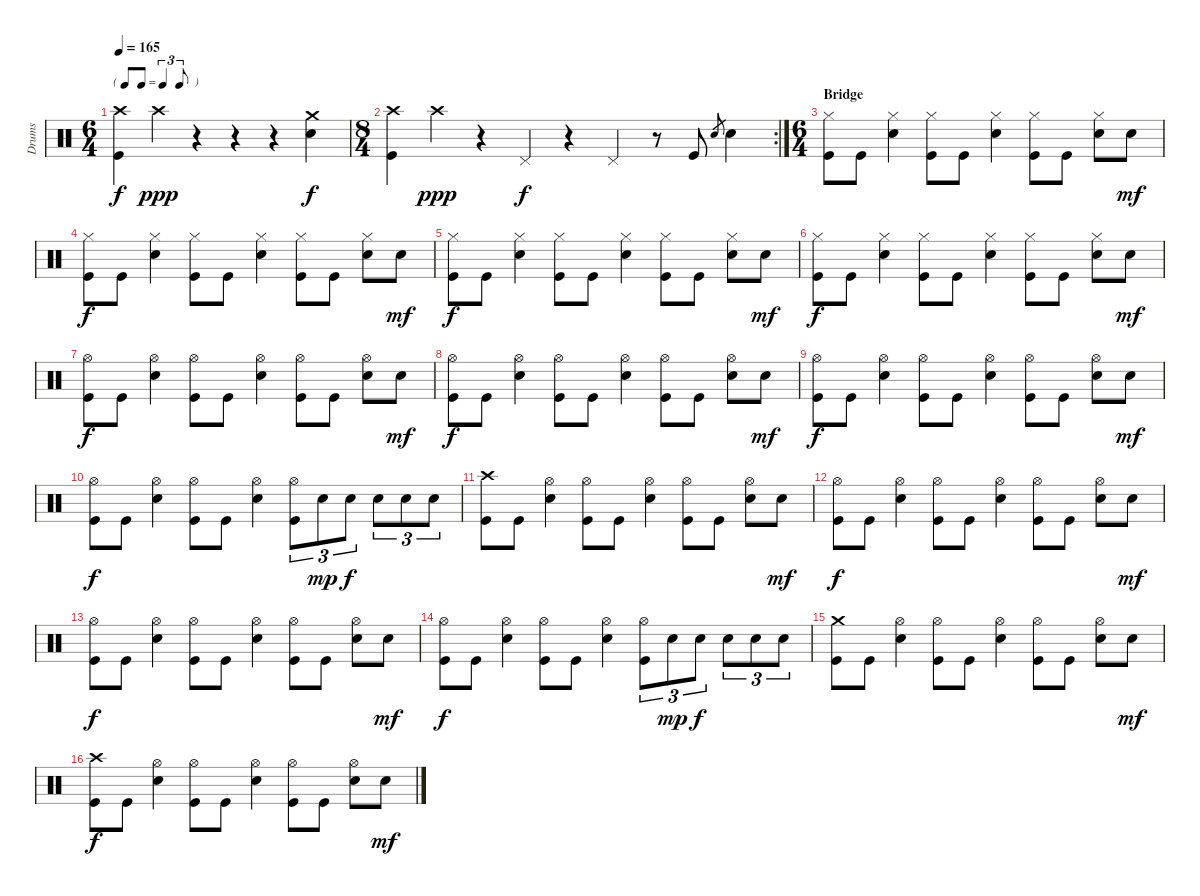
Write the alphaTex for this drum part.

\track ("Drums" "Drums") {instrument percussion}
\staff {score}
\articulation defaults
\ts (6 4)
\tf triplet8th
\tempo 165
\clef neutral
\ks c
("Crash high (hit)" "Kick (hit)").4{dy f} "Crash high (hit)".4{dy ppp} r.4 r.4 r.4 ("Crash medium (hit)" "Electric Snare (hit)").4{dy f} |
\rc 2
\ts (8 4)
("Crash high (hit)" "Kick (hit)").4 "Crash high (hit)".4{dy ppp} r.4 "Pedal Hi-Hat (hit)".4{dy f} r.4 "Pedal Hi-Hat (hit)".4 r.8 "Kick (hit)".8 "Electric Snare (hit)".8{gr} "Electric Snare (hit)".4 |
\ts (6 4)
\section ("" "Bridge")
("Hi-Hat (closed)" "Kick (hit)").8 "Kick (hit)".8 ("Hi-Hat (closed)" "Electric Snare (hit)").4 ("Hi-Hat (closed)" "Kick (hit)").8 "Kick (hit)".8 ("Hi-Hat (closed)" "Electric Snare (hit)").4 ("Hi-Hat (closed)" "Kick (hit)").8 "Kick (hit)".8 ("Hi-Hat (closed)" "Electric Snare (hit)").8 "Electric Snare (hit)".8{dy mf} |
("Hi-Hat (closed)" "Kick (hit)").8{dy f} "Kick (hit)".8 ("Hi-Hat (closed)" "Electric Snare (hit)").4 ("Hi-Hat (closed)" "Kick (hit)").8 "Kick (hit)".8 ("Hi-Hat (closed)" "Electric Snare (hit)").4 ("Hi-Hat (closed)" "Kick (hit)").8 "Kick (hit)".8 ("Hi-Hat (closed)" "Electric Snare (hit)").8 "Electric Snare (hit)".8{dy mf} |
("Hi-Hat (closed)" "Kick (hit)").8{dy f} "Kick (hit)".8 ("Hi-Hat (closed)" "Electric Snare (hit)").4 ("Hi-Hat (closed)" "Kick (hit)").8 "Kick (hit)".8 ("Hi-Hat (closed)" "Electric Snare (hit)").4 ("Hi-Hat (closed)" "Kick (hit)").8 "Kick (hit)".8 ("Hi-Hat (closed)" "Electric Snare (hit)").8 "Electric Snare (hit)".8{dy mf} |
("Hi-Hat (closed)" "Kick (hit)").8{dy f} "Kick (hit)".8 ("Hi-Hat (closed)" "Electric Snare (hit)").4 ("Hi-Hat (closed)" "Kick (hit)").8 "Kick (hit)".8 ("Hi-Hat (closed)" "Electric Snare (hit)").4 ("Hi-Hat (closed)" "Kick (hit)").8 "Kick (hit)".8 ("Hi-Hat (closed)" "Electric Snare (hit)").8 "Electric Snare (hit)".8{dy mf} |
("Hi-Hat (open)" "Kick (hit)").8{dy f} "Kick (hit)".8 ("Hi-Hat (open)" "Electric Snare (hit)").4 ("Hi-Hat (open)" "Kick (hit)").8 "Kick (hit)".8 ("Hi-Hat (open)" "Electric Snare (hit)").4 ("Hi-Hat (open)" "Kick (hit)").8 "Kick (hit)".8 ("Hi-Hat (open)" "Electric Snare (hit)").8 "Electric Snare (hit)".8{dy mf} |
("Hi-Hat (open)" "Kick (hit)").8{dy f} "Kick (hit)".8 ("Hi-Hat (open)" "Electric Snare (hit)").4 ("Hi-Hat (open)" "Kick (hit)").8 "Kick (hit)".8 ("Hi-Hat (open)" "Electric Snare (hit)").4 ("Hi-Hat (open)" "Kick (hit)").8 "Kick (hit)".8 ("Hi-Hat (open)" "Electric Snare (hit)").8 "Electric Snare (hit)".8{dy mf} |
("Hi-Hat (open)" "Kick (hit)").8{dy f} "Kick (hit)".8 ("Hi-Hat (open)" "Electric Snare (hit)").4 ("Hi-Hat (open)" "Kick (hit)").8 "Kick (hit)".8 ("Hi-Hat (open)" "Electric Snare (hit)").4 ("Hi-Hat (open)" "Kick (hit)").8 "Kick (hit)".8 ("Hi-Hat (open)" "Electric Snare (hit)").8 "Electric Snare (hit)".8{dy mf} |
("Hi-Hat (open)" "Kick (hit)").8{dy f} "Kick (hit)".8 ("Hi-Hat (open)" "Electric Snare (hit)").4 ("Hi-Hat (open)" "Kick (hit)").8 "Kick (hit)".8 ("Hi-Hat (open)" "Electric Snare (hit)").4 ("Hi-Hat (open)" "Kick (hit)").8{tu (3 2)} "Electric Snare (hit)".8{tu (3 2) dy mp} "Electric Snare (hit)".8{tu (3 2) dy f} "Electric Snare (hit)".8{tu (3 2)} "Electric Snare (hit)".8{tu (3 2)} "Electric Snare (hit)".8{tu (3 2)} |
("Crash high (hit)" "Kick (hit)").8 "Kick (hit)".8 ("Hi-Hat (open)" "Electric Snare (hit)").4 ("Hi-Hat (open)" "Kick (hit)").8 "Kick (hit)".8 ("Hi-Hat (open)" "Electric Snare (hit)").4 ("Hi-Hat (open)" "Kick (hit)").8 "Kick (hit)".8 ("Hi-Hat (open)" "Electric Snare (hit)").8 "Electric Snare (hit)".8{dy mf} |
("Hi-Hat (open)" "Kick (hit)").8{dy f} "Kick (hit)".8 ("Hi-Hat (open)" "Electric Snare (hit)").4 ("Hi-Hat (open)" "Kick (hit)").8 "Kick (hit)".8 ("Hi-Hat (open)" "Electric Snare (hit)").4 ("Hi-Hat (open)" "Kick (hit)").8 "Kick (hit)".8 ("Hi-Hat (open)" "Electric Snare (hit)").8 "Electric Snare (hit)".8{dy mf} |
("Hi-Hat (open)" "Kick (hit)").8{dy f} "Kick (hit)".8 ("Hi-Hat (open)" "Electric Snare (hit)").4 ("Hi-Hat (open)" "Kick (hit)").8 "Kick (hit)".8 ("Hi-Hat (open)" "Electric Snare (hit)").4 ("Hi-Hat (open)" "Kick (hit)").8 "Kick (hit)".8 ("Hi-Hat (open)" "Electric Snare (hit)").8 "Electric Snare (hit)".8{dy mf} |
("Hi-Hat (open)" "Kick (hit)").8{dy f} "Kick (hit)".8 ("Hi-Hat (open)" "Electric Snare (hit)").4 ("Hi-Hat (open)" "Kick (hit)").8 "Kick (hit)".8 ("Hi-Hat (open)" "Electric Snare (hit)").4 ("Hi-Hat (open)" "Kick (hit)").8{tu (3 2)} "Electric Snare (hit)".8{tu (3 2) dy mp} "Electric Snare (hit)".8{tu (3 2) dy f} "Electric Snare (hit)".8{tu (3 2)} "Electric Snare (hit)".8{tu (3 2)} "Electric Snare (hit)".8{tu (3 2)} |
("Crash medium (hit)" "Kick (hit)").8 "Kick (hit)".8 ("Hi-Hat (open)" "Electric Snare (hit)").4 ("Hi-Hat (open)" "Kick (hit)").8 "Kick (hit)".8 ("Hi-Hat (open)" "Electric Snare (hit)").4 ("Hi-Hat (open)" "Kick (hit)").8 "Kick (hit)".8 ("Hi-Hat (open)" "Electric Snare (hit)").8 "Electric Snare (hit)".8{dy mf} |
("Crash high (hit)" "Kick (hit)").8{dy f} "Kick (hit)".8 ("Hi-Hat (open)" "Electric Snare (hit)").4 ("Hi-Hat (open)" "Kick (hit)").8 "Kick (hit)".8 ("Hi-Hat (open)" "Electric Snare (hit)").4 ("Hi-Hat (open)" "Kick (hit)").8 "Kick (hit)".8 ("Hi-Hat (open)" "Electric Snare (hit)").8 "Electric Snare (hit)".8{dy mf}
